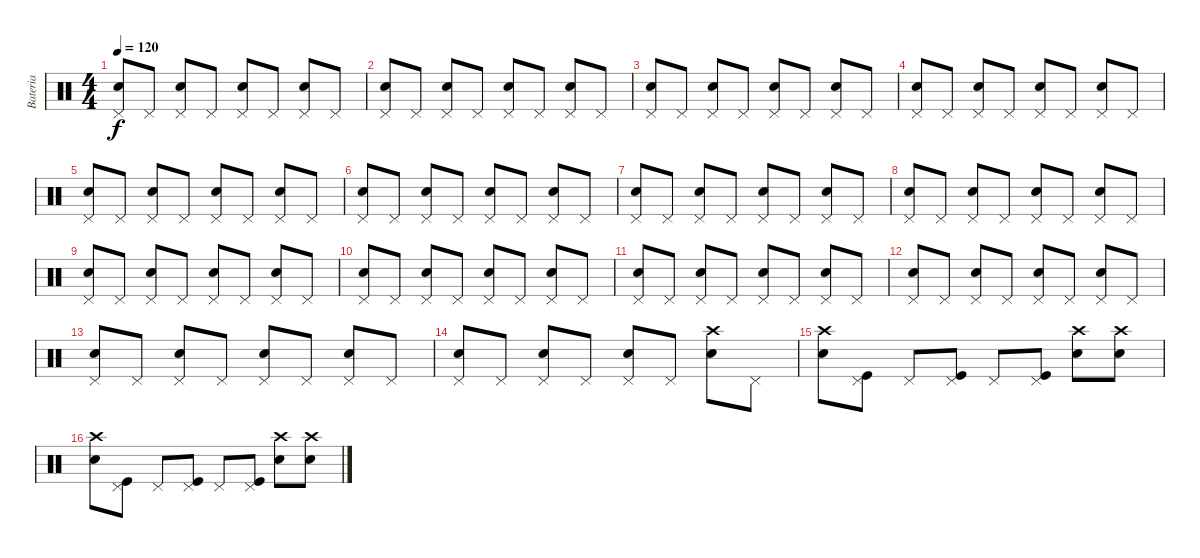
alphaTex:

\track ("Bateria" "Bateria") {instrument percussion}
\staff {score}
\articulation defaults
\ts (4 4)
\tempo 120
\clef neutral
\ks c
("Pedal Hi-Hat (hit)" "Snare (hit) 2").8{dy f} "Pedal Hi-Hat (hit)".8 ("Pedal Hi-Hat (hit)" "Snare (hit) 2").8 "Pedal Hi-Hat (hit)".8 ("Pedal Hi-Hat (hit)" "Snare (hit) 2").8 "Pedal Hi-Hat (hit)".8 ("Pedal Hi-Hat (hit)" "Snare (hit) 2").8 "Pedal Hi-Hat (hit)".8 |
("Pedal Hi-Hat (hit)" "Snare (hit) 2").8 "Pedal Hi-Hat (hit)".8 ("Pedal Hi-Hat (hit)" "Snare (hit) 2").8 "Pedal Hi-Hat (hit)".8 ("Pedal Hi-Hat (hit)" "Snare (hit) 2").8 "Pedal Hi-Hat (hit)".8 ("Pedal Hi-Hat (hit)" "Snare (hit) 2").8 "Pedal Hi-Hat (hit)".8 |
("Pedal Hi-Hat (hit)" "Snare (hit) 2").8 "Pedal Hi-Hat (hit)".8 ("Pedal Hi-Hat (hit)" "Snare (hit) 2").8 "Pedal Hi-Hat (hit)".8 ("Pedal Hi-Hat (hit)" "Snare (hit) 2").8 "Pedal Hi-Hat (hit)".8 ("Pedal Hi-Hat (hit)" "Snare (hit) 2").8 "Pedal Hi-Hat (hit)".8 |
("Pedal Hi-Hat (hit)" "Snare (hit) 2").8 "Pedal Hi-Hat (hit)".8 ("Pedal Hi-Hat (hit)" "Snare (hit) 2").8 "Pedal Hi-Hat (hit)".8 ("Pedal Hi-Hat (hit)" "Snare (hit) 2").8 "Pedal Hi-Hat (hit)".8 ("Pedal Hi-Hat (hit)" "Snare (hit) 2").8 "Pedal Hi-Hat (hit)".8 |
("Pedal Hi-Hat (hit)" "Snare (hit) 2").8 "Pedal Hi-Hat (hit)".8 ("Pedal Hi-Hat (hit)" "Snare (hit) 2").8 "Pedal Hi-Hat (hit)".8 ("Pedal Hi-Hat (hit)" "Snare (hit) 2").8 "Pedal Hi-Hat (hit)".8 ("Pedal Hi-Hat (hit)" "Snare (hit) 2").8 "Pedal Hi-Hat (hit)".8 |
("Pedal Hi-Hat (hit)" "Snare (hit) 2").8 "Pedal Hi-Hat (hit)".8 ("Pedal Hi-Hat (hit)" "Snare (hit) 2").8 "Pedal Hi-Hat (hit)".8 ("Pedal Hi-Hat (hit)" "Snare (hit) 2").8 "Pedal Hi-Hat (hit)".8 ("Pedal Hi-Hat (hit)" "Snare (hit) 2").8 "Pedal Hi-Hat (hit)".8 |
("Pedal Hi-Hat (hit)" "Snare (hit) 2").8 "Pedal Hi-Hat (hit)".8 ("Pedal Hi-Hat (hit)" "Snare (hit) 2").8 "Pedal Hi-Hat (hit)".8 ("Pedal Hi-Hat (hit)" "Snare (hit) 2").8 "Pedal Hi-Hat (hit)".8 ("Pedal Hi-Hat (hit)" "Snare (hit) 2").8 "Pedal Hi-Hat (hit)".8 |
("Pedal Hi-Hat (hit)" "Snare (hit) 2").8 "Pedal Hi-Hat (hit)".8 ("Pedal Hi-Hat (hit)" "Snare (hit) 2").8 "Pedal Hi-Hat (hit)".8 ("Pedal Hi-Hat (hit)" "Snare (hit) 2").8 "Pedal Hi-Hat (hit)".8 ("Pedal Hi-Hat (hit)" "Snare (hit) 2").8 "Pedal Hi-Hat (hit)".8 |
("Pedal Hi-Hat (hit)" "Snare (hit) 2").8 "Pedal Hi-Hat (hit)".8 ("Pedal Hi-Hat (hit)" "Snare (hit) 2").8 "Pedal Hi-Hat (hit)".8 ("Pedal Hi-Hat (hit)" "Snare (hit) 2").8 "Pedal Hi-Hat (hit)".8 ("Pedal Hi-Hat (hit)" "Snare (hit) 2").8 "Pedal Hi-Hat (hit)".8 |
("Pedal Hi-Hat (hit)" "Snare (hit) 2").8 "Pedal Hi-Hat (hit)".8 ("Pedal Hi-Hat (hit)" "Snare (hit) 2").8 "Pedal Hi-Hat (hit)".8 ("Pedal Hi-Hat (hit)" "Snare (hit) 2").8 "Pedal Hi-Hat (hit)".8 ("Pedal Hi-Hat (hit)" "Snare (hit) 2").8 "Pedal Hi-Hat (hit)".8 |
("Pedal Hi-Hat (hit)" "Snare (hit) 2").8 "Pedal Hi-Hat (hit)".8 ("Pedal Hi-Hat (hit)" "Snare (hit) 2").8 "Pedal Hi-Hat (hit)".8 ("Pedal Hi-Hat (hit)" "Snare (hit) 2").8 "Pedal Hi-Hat (hit)".8 ("Pedal Hi-Hat (hit)" "Snare (hit) 2").8 "Pedal Hi-Hat (hit)".8 |
("Pedal Hi-Hat (hit)" "Snare (hit) 2").8 "Pedal Hi-Hat (hit)".8 ("Pedal Hi-Hat (hit)" "Snare (hit) 2").8 "Pedal Hi-Hat (hit)".8 ("Pedal Hi-Hat (hit)" "Snare (hit) 2").8 "Pedal Hi-Hat (hit)".8 ("Pedal Hi-Hat (hit)" "Snare (hit) 2").8 "Pedal Hi-Hat (hit)".8 |
("Pedal Hi-Hat (hit)" "Snare (hit) 2").8 "Pedal Hi-Hat (hit)".8 ("Pedal Hi-Hat (hit)" "Snare (hit) 2").8 "Pedal Hi-Hat (hit)".8 ("Pedal Hi-Hat (hit)" "Snare (hit) 2").8 "Pedal Hi-Hat (hit)".8 ("Pedal Hi-Hat (hit)" "Snare (hit) 2").8 "Pedal Hi-Hat (hit)".8 |
("Pedal Hi-Hat (hit)" "Snare (hit) 2").8 "Pedal Hi-Hat (hit)".8 ("Pedal Hi-Hat (hit)" "Snare (hit) 2").8 "Pedal Hi-Hat (hit)".8 ("Pedal Hi-Hat (hit)" "Snare (hit) 2").8 "Pedal Hi-Hat (hit)".8 ("Crash high (hit)" "Snare (hit) 2").8 "Pedal Hi-Hat (hit)".8 |
("Crash high (hit)" "Snare (hit) 2").8 ("Pedal Hi-Hat (hit)" "Kick (hit)").8 "Pedal Hi-Hat (hit)".8 ("Pedal Hi-Hat (hit)" "Kick (hit)").8 "Pedal Hi-Hat (hit)".8 ("Pedal Hi-Hat (hit)" "Kick (hit)").8 ("Crash high (hit)" "Snare (hit) 2").8 ("Crash high (hit)" "Snare (hit) 2").8 |
("Crash high (hit)" "Snare (hit) 2").8 ("Pedal Hi-Hat (hit)" "Kick (hit)").8 "Pedal Hi-Hat (hit)".8 ("Pedal Hi-Hat (hit)" "Kick (hit)").8 "Pedal Hi-Hat (hit)".8 ("Pedal Hi-Hat (hit)" "Kick (hit)").8 ("Crash high (hit)" "Snare (hit) 2").8 ("Crash high (hit)" "Snare (hit) 2").8
